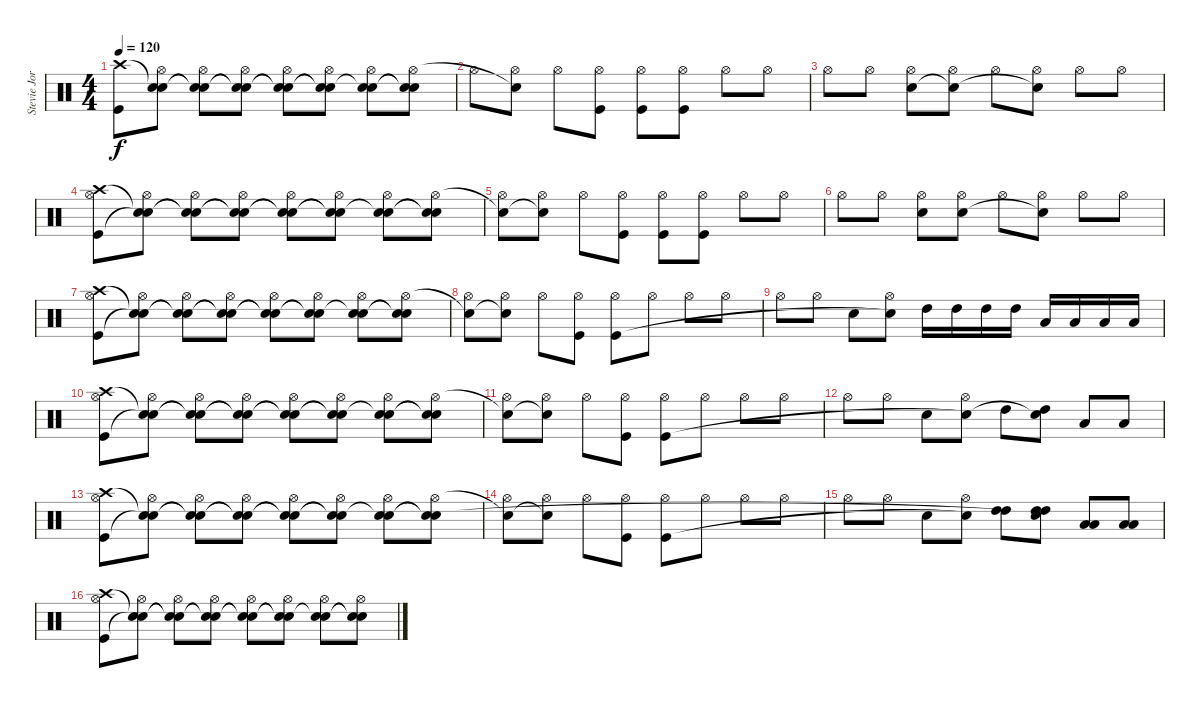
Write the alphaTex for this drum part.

\track ("Stevie Jordan" "Stevie Jor") {instrument percussion}
\staff {score}
\articulation defaults
\ts (4 4)
\tempo 120
\clef neutral
\ks c
("Crash high (hit)" "Kick (hit)").8{dy f} ("Snare (hit)"{t} "Hi-Hat (open)" "Snare (hit)"{t}).8 ("Snare (hit)"{t} "Hi-Hat (open)" "Snare (hit)"{t}).8 ("Snare (hit)"{t} "Hi-Hat (open)" "Snare (hit)"{t}).8 ("Snare (hit)"{t} "Hi-Hat (open)" "Snare (hit)"{t}).8 ("Snare (hit)"{t} "Hi-Hat (open)" "Snare (hit)"{t}).8 ("Snare (hit)"{t} "Hi-Hat (open)" "Snare (hit) 2").8 ("Snare (hit)"{t} "Hi-Hat (open)" "Snare (hit)"{t}).8 |
"Hi-Hat (open)".8 ("Hi-Hat (open)" "Snare (hit)"{t}).8 "Hi-Hat (open)".8 ("Hi-Hat (open)" "Kick (hit)").8 ("Hi-Hat (open)" "Kick (hit)").8 ("Hi-Hat (open)" "Kick (hit)").8 "Hi-Hat (open)".8 "Hi-Hat (open)".8 |
"Hi-Hat (open)".8 "Hi-Hat (open)".8 ("Hi-Hat (open)" "Snare (hit) 2").8 ("Hi-Hat (open)" "Snare (hit)"{t}).8 "Hi-Hat (open)".8 ("Hi-Hat (open)" "Snare (hit)"{t}).8 "Hi-Hat (open)".8 "Hi-Hat (open)".8 |
("Crash high (hit)" "Hi-Hat (open)" "Kick (hit)").8 ("Snare (hit)"{t} "Hi-Hat (open)" "Snare (hit)"{t}).8 ("Snare (hit)"{t} "Hi-Hat (open)" "Snare (hit)"{t}).8 ("Snare (hit)"{t} "Hi-Hat (open)" "Snare (hit)"{t}).8 ("Snare (hit)"{t} "Hi-Hat (open)" "Snare (hit)"{t}).8 ("Snare (hit)"{t} "Hi-Hat (open)" "Snare (hit)"{t}).8 ("Snare (hit)"{t} "Hi-Hat (open)" "Snare (hit) 2").8 ("Snare (hit)"{t} "Hi-Hat (open)" "Snare (hit)"{t}).8 |
("Hi-Hat (open)" "Snare (hit)"{t}).8 ("Hi-Hat (open)" "Snare (hit)"{t}).8 "Hi-Hat (open)".8 ("Hi-Hat (open)" "Kick (hit)").8 ("Hi-Hat (open)" "Kick (hit)").8 ("Hi-Hat (open)" "Kick (hit)").8 "Hi-Hat (open)".8 "Hi-Hat (open)".8 |
"Hi-Hat (open)".8 "Hi-Hat (open)".8 ("Hi-Hat (open)" "Snare (hit) 2").8 ("Hi-Hat (open)" "Snare (hit) 2").8 "Hi-Hat (open)".8 ("Hi-Hat (open)" "Snare (hit)"{t}).8 "Hi-Hat (open)".8 "Hi-Hat (open)".8 |
("Crash high (hit)" "Hi-Hat (open)" "Kick (hit)").8 ("Snare (hit)"{t} "Hi-Hat (open)" "Snare (hit)"{t}).8 ("Snare (hit)"{t} "Hi-Hat (open)" "Snare (hit)"{t}).8 ("Snare (hit)"{t} "Hi-Hat (open)" "Snare (hit)"{t}).8 ("Snare (hit)"{t} "Hi-Hat (open)" "Snare (hit)"{t}).8 ("Snare (hit)"{t} "Hi-Hat (open)" "Snare (hit)"{t}).8 ("Snare (hit)"{t} "Hi-Hat (open)" "Snare (hit) 2").8 ("Snare (hit)"{t} "Hi-Hat (open)" "Snare (hit)"{t}).8 |
("Hi-Hat (open)" "Snare (hit)"{t}).8 ("Hi-Hat (open)" "Snare (hit)"{t}).8 "Hi-Hat (open)".8 ("Hi-Hat (open)" "Kick (hit)").8 ("Hi-Hat (open)" "Kick (hit)").8 "Hi-Hat (open)".8 "Hi-Hat (open)".8 "Hi-Hat (open)".8 |
"Hi-Hat (open)".8 "Hi-Hat (open)".8 "Snare (hit) 2".8 ("Hi-Hat (open)" "Snare (hit)"{t}).8 "High Tom (hit)".16 "High Tom (hit)".16 "High Tom (hit)".16 "High Tom (hit)".16 "Low Tom (hit)".16 "Low Tom (hit)".16 "Low Tom (hit)".16 "Low Tom (hit)".16 |
("Crash high (hit)" "Hi-Hat (open)" "Kick (hit)").8 ("Snare (hit)"{t} "Hi-Hat (open)" "Snare (hit)"{t}).8 ("Snare (hit)"{t} "Hi-Hat (open)" "Snare (hit)"{t}).8 ("Snare (hit)"{t} "Hi-Hat (open)" "Snare (hit)"{t}).8 ("Snare (hit)"{t} "Hi-Hat (open)" "Snare (hit)"{t}).8 ("Snare (hit)"{t} "Hi-Hat (open)" "Snare (hit)"{t}).8 ("Snare (hit)"{t} "Hi-Hat (open)" "Snare (hit) 2").8 ("Snare (hit)"{t} "Hi-Hat (open)" "Snare (hit)"{t}).8 |
("Hi-Hat (open)" "Snare (hit)"{t}).8 ("Hi-Hat (open)" "Snare (hit)"{t}).8 "Hi-Hat (open)".8 ("Hi-Hat (open)" "Kick (hit)").8 ("Hi-Hat (open)" "Kick (hit)").8 "Hi-Hat (open)".8 "Hi-Hat (open)".8 "Hi-Hat (open)".8 |
"Hi-Hat (open)".8 "Hi-Hat (open)".8 "Snare (hit) 2".8 ("Hi-Hat (open)" "Snare (hit)"{t}).8 "High Tom (hit)".8 ("High Tom (hit)" "Snare (hit)"{t}).8 "Low Tom (hit)".8 "Low Tom (hit)".8 |
("Crash high (hit)" "Hi-Hat (open)" "Kick (hit)").8 ("Snare (hit)"{t} "Hi-Hat (open)" "Snare (hit)"{t}).8 ("Snare (hit)"{t} "Hi-Hat (open)" "Snare (hit)"{t}).8 ("Snare (hit)"{t} "Hi-Hat (open)" "Snare (hit)"{t}).8 ("Snare (hit)"{t} "Hi-Hat (open)" "Snare (hit)"{t}).8 ("Snare (hit)"{t} "Hi-Hat (open)" "Snare (hit)"{t}).8 ("Snare (hit)"{t} "Hi-Hat (open)" "Snare (hit) 2").8 ("Snare (hit)"{t} "Hi-Hat (open)" "Snare (hit)"{t}).8 |
("Hi-Hat (open)" "Snare (hit)"{t}).8 ("Hi-Hat (open)" "Snare (hit)"{t}).8 "Hi-Hat (open)".8 ("Hi-Hat (open)" "Kick (hit)").8 ("Hi-Hat (open)" "Kick (hit)").8 "Hi-Hat (open)".8 "Hi-Hat (open)".8 "Hi-Hat (open)".8 |
"Hi-Hat (open)".8 "Hi-Hat (open)".8 "Snare (hit) 2".8 ("Hi-Hat (open)" "Snare (hit)"{t}).8 ("High Tom (hit)" "High Tom (hit)").8 ("High Tom (hit)" "High Tom (hit)" "Snare (hit)"{t}).8 ("Low Tom (hit)" "Low Tom (hit)").8 ("Low Tom (hit)" "Low Tom (hit)").8 |
("Crash high (hit)" "Hi-Hat (open)" "Kick (hit)").8 ("Snare (hit)"{t} "Hi-Hat (open)" "Snare (hit)"{t}).8 ("Snare (hit)"{t} "Hi-Hat (open)" "Snare (hit)"{t}).8 ("Snare (hit)"{t} "Hi-Hat (open)" "Snare (hit)"{t}).8 ("Snare (hit)"{t} "Hi-Hat (open)" "Snare (hit)"{t}).8 ("Snare (hit)"{t} "Hi-Hat (open)" "Snare (hit)"{t}).8 ("Snare (hit)"{t} "Hi-Hat (open)" "Snare (hit) 2").8 ("Snare (hit)"{t} "Hi-Hat (open)" "Snare (hit)"{t}).8
